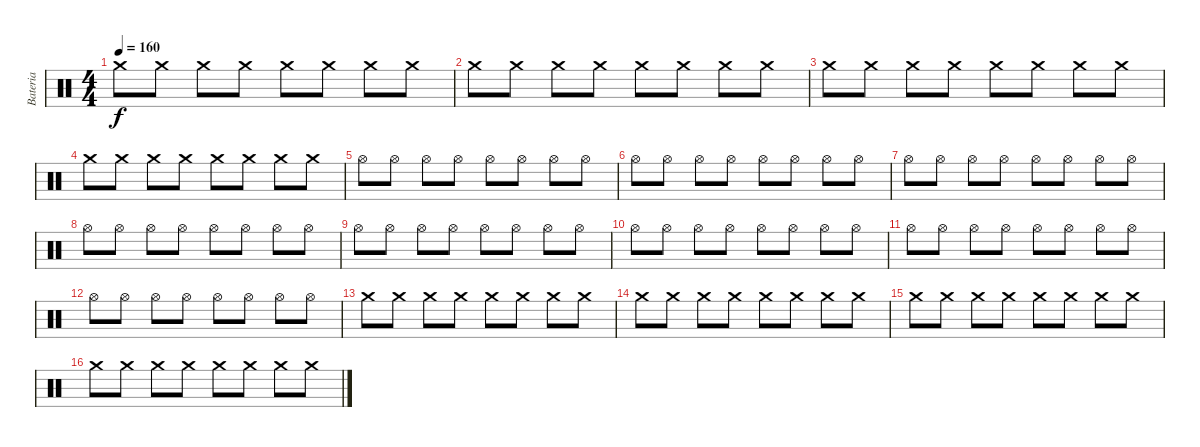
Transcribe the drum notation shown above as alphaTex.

\track ("Bateria" "Bateria") {instrument percussion}
\staff {score}
\articulation defaults
\ts (4 4)
\tempo 160
\clef neutral
\ks c "Crash medium (hit)".8{dy f} "Crash medium (hit)".8 "Crash medium (hit)".8 "Crash medium (hit)".8 "Crash medium (hit)".8 "Crash medium (hit)".8 "Crash medium (hit)".8 "Crash medium (hit)".8
|
"Crash medium (hit)".8 "Crash medium (hit)".8 "Crash medium (hit)".8 "Crash medium (hit)".8 "Crash medium (hit)".8 "Crash medium (hit)".8 "Crash medium (hit)".8 "Crash medium (hit)".8 |
"Crash medium (hit)".8 "Crash medium (hit)".8 "Crash medium (hit)".8 "Crash medium (hit)".8 "Crash medium (hit)".8 "Crash medium (hit)".8 "Crash medium (hit)".8 "Crash medium (hit)".8 |
"Crash medium (hit)".8 "Crash medium (hit)".8 "Crash medium (hit)".8 "Crash medium (hit)".8 "Crash medium (hit)".8 "Crash medium (hit)".8 "Crash medium (hit)".8 "Crash medium (hit)".8 |
"Hi-Hat (open)".8 "Hi-Hat (open)".8 "Hi-Hat (open)".8 "Hi-Hat (open)".8 "Hi-Hat (open)".8 "Hi-Hat (open)".8 "Hi-Hat (open)".8 "Hi-Hat (open)".8 |
"Hi-Hat (open)".8 "Hi-Hat (open)".8 "Hi-Hat (open)".8 "Hi-Hat (open)".8 "Hi-Hat (open)".8 "Hi-Hat (open)".8 "Hi-Hat (open)".8 "Hi-Hat (open)".8 |
"Hi-Hat (open)".8 "Hi-Hat (open)".8 "Hi-Hat (open)".8 "Hi-Hat (open)".8 "Hi-Hat (open)".8 "Hi-Hat (open)".8 "Hi-Hat (open)".8 "Hi-Hat (open)".8 |
"Hi-Hat (open)".8 "Hi-Hat (open)".8 "Hi-Hat (open)".8 "Hi-Hat (open)".8 "Hi-Hat (open)".8 "Hi-Hat (open)".8 "Hi-Hat (open)".8 "Hi-Hat (open)".8 |
"Hi-Hat (open)".8 "Hi-Hat (open)".8 "Hi-Hat (open)".8 "Hi-Hat (open)".8 "Hi-Hat (open)".8 "Hi-Hat (open)".8 "Hi-Hat (open)".8 "Hi-Hat (open)".8 |
"Hi-Hat (open)".8 "Hi-Hat (open)".8 "Hi-Hat (open)".8 "Hi-Hat (open)".8 "Hi-Hat (open)".8 "Hi-Hat (open)".8 "Hi-Hat (open)".8 "Hi-Hat (open)".8 |
"Hi-Hat (open)".8 "Hi-Hat (open)".8 "Hi-Hat (open)".8 "Hi-Hat (open)".8 "Hi-Hat (open)".8 "Hi-Hat (open)".8 "Hi-Hat (open)".8 "Hi-Hat (open)".8 |
"Hi-Hat (open)".8 "Hi-Hat (open)".8 "Hi-Hat (open)".8 "Hi-Hat (open)".8 "Hi-Hat (open)".8 "Hi-Hat (open)".8 "Hi-Hat (open)".8 "Hi-Hat (open)".8 |
"Crash medium (hit)".8 "Crash medium (hit)".8 "Crash medium (hit)".8 "Crash medium (hit)".8 "Crash medium (hit)".8 "Crash medium (hit)".8 "Crash medium (hit)".8 "Crash medium (hit)".8 |
"Crash medium (hit)".8 "Crash medium (hit)".8 "Crash medium (hit)".8 "Crash medium (hit)".8 "Crash medium (hit)".8 "Crash medium (hit)".8 "Crash medium (hit)".8 "Crash medium (hit)".8 |
"Crash medium (hit)".8 "Crash medium (hit)".8 "Crash medium (hit)".8 "Crash medium (hit)".8 "Crash medium (hit)".8 "Crash medium (hit)".8 "Crash medium (hit)".8 "Crash medium (hit)".8 |
"Crash medium (hit)".8 "Crash medium (hit)".8 "Crash medium (hit)".8 "Crash medium (hit)".8 "Crash medium (hit)".8 "Crash medium (hit)".8 "Crash medium (hit)".8 "Crash medium (hit)".8
